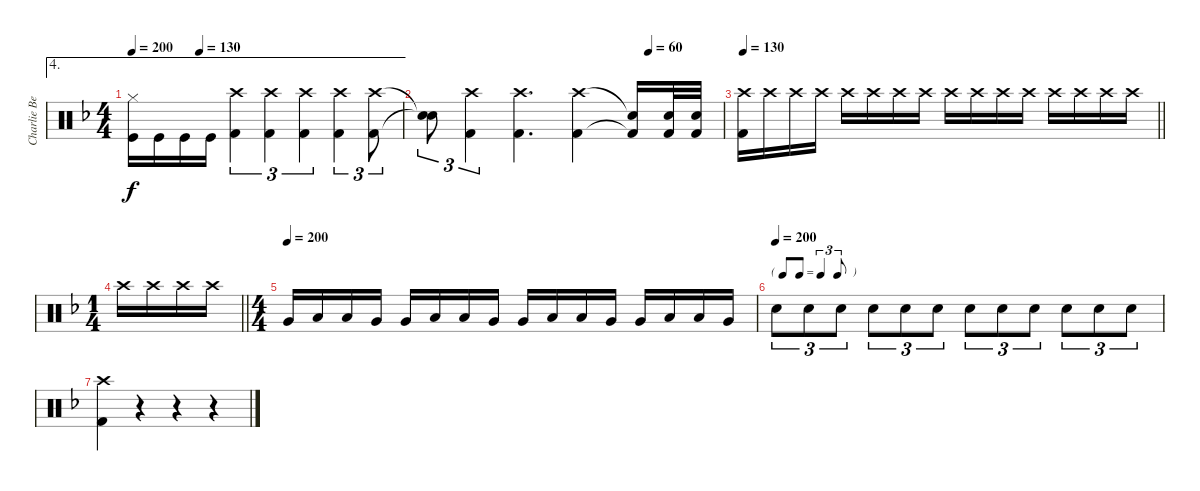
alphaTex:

\track ("Charlie Benante" "Charlie Be") {instrument percussion}
\staff {score}
\articulation defaults
\ae 4
\ts (4 4)
\tempo 200
\tempo (130 0.25)
\clef neutral
\ks f
("Hi-Hat (closed)" "Kick (hit)").16{dy f} "Kick (hit)".16 "Kick (hit)".16 "Kick (hit)".16 ("Crash high (hit)" "Kick (hit) 2").4{tu (3 2)} ("Crash high (hit)" "Kick (hit) 2").4{tu (3 2)} ("Crash high (hit)" "Kick (hit) 2").4{tu (3 2)} ("Crash high (hit)" "Kick (hit) 2").4{tu (3 2)} ("Crash high (hit)" "Kick (hit) 2").8{tu (3 2)} |
\tempo (60 0.75)
("Snare (hit)"{t} "Snare (hit)"{t}).8{tu (3 2)} ("Crash high (hit)" "Kick (hit) 2").4{tu (3 2)} ("Crash high (hit)" "Kick (hit) 2").4{d} ("Crash high (hit)" "Kick (hit) 2").4 ("Electric Snare (hit)"{t} "Kick (hit) 2"{t}).16 ("Electric Snare (hit)" "Kick (hit) 2").32 ("Electric Snare (hit)" "Kick (hit) 2").32 |
\tempo 130
\barLineRight lightlight
("Kick (hit) 2" "Crash high (hit)").16 "Crash high (hit)".16 "Crash high (hit)".16 "Crash high (hit)".16 "Crash high (hit)".16 "Crash high (hit)".16 "Crash high (hit)".16 "Crash high (hit)".16 "Crash high (hit)".16 "Crash high (hit)".16 "Crash high (hit)".16 "Crash high (hit)".16 "Crash high (hit)".16 "Crash high (hit)".16 "Crash high (hit)".16 "Crash high (hit)".16 |
\ts (1 4)
\barLineRight lightlight "Crash high (hit)".16 "Crash high (hit)".16 "Crash high (hit)".16 "Crash high (hit)".16
|
\ts (4 4)
\tempo (200)
"Very Low Tom (hit)".16 "Low Tom (hit)".16 "Low Floor Tom (hit)".16 "Very Low Tom (hit)".16 "Very Low Tom (hit)".16 "Low Tom (hit)".16 "Low Floor Tom (hit)".16 "Very Low Tom (hit)".16 "Very Low Tom (hit)".16 "Low Tom (hit)".16 "Low Floor Tom (hit)".16 "Very Low Tom (hit)".16 "Very Low Tom (hit)".16 "Low Tom (hit)".16 "Low Floor Tom (hit)".16 "Very Low Tom (hit)".16 |
\tf triplet8th
\tempo (200)
"Electric Snare (hit)".8{tu (3 2)} "Electric Snare (hit)".8{tu (3 2)} "Electric Snare (hit)".8{tu (3 2)} "Electric Snare (hit)".8{tu (3 2)} "Electric Snare (hit)".8{tu (3 2)} "Electric Snare (hit)".8{tu (3 2)} "Electric Snare (hit)".8{tu (3 2)} "Electric Snare (hit)".8{tu (3 2)} "Electric Snare (hit)".8{tu (3 2)} "Electric Snare (hit)".8{tu (3 2)} "Electric Snare (hit)".8{tu (3 2)} "Electric Snare (hit)".8{tu (3 2)} |
("Crash high (hit)" "Kick (hit) 2").4 r.4 r.4 r.4
